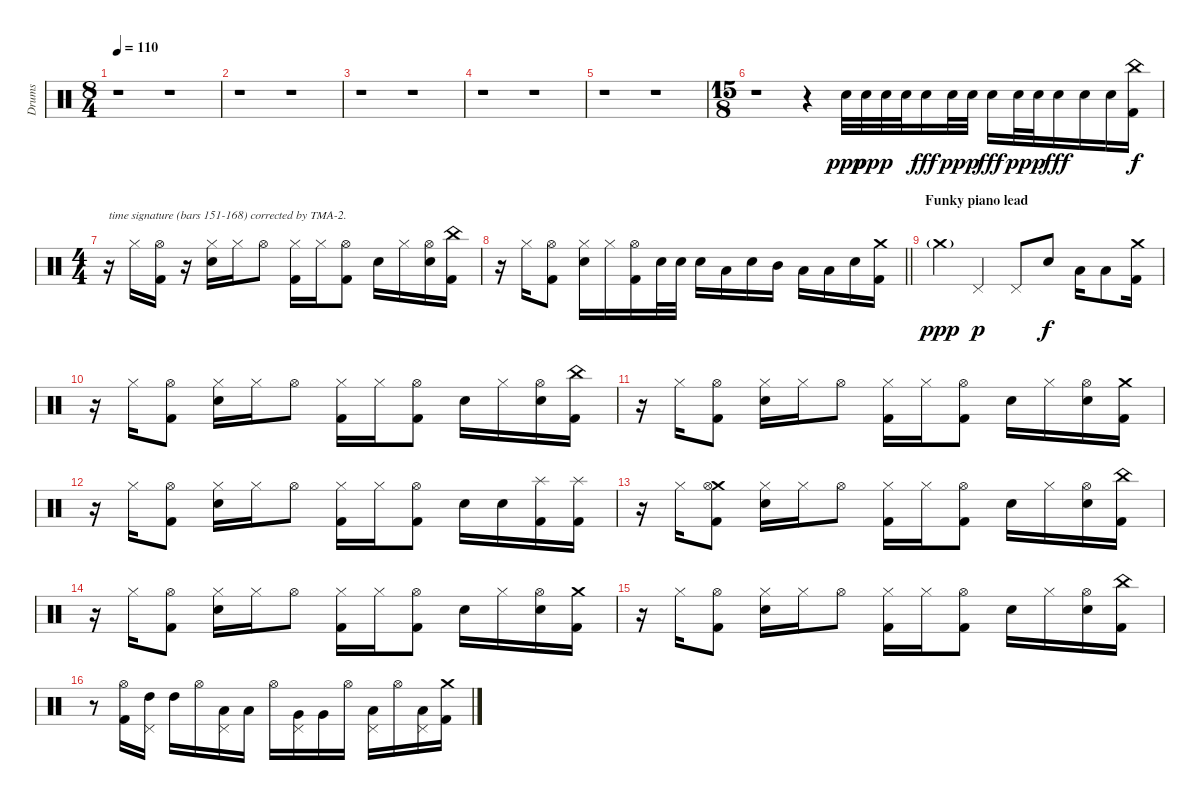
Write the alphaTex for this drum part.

\track ("Drums" "Drums") {instrument percussion}
\staff {score}
\articulation defaults
\ts (8 4)
\tempo 110
\clef neutral
\ks c
r.1{dy f} r.1 |
r.1 r.1 |
r.1 r.1 |
r.1 r.1 |
r.1 r.1 |
\ts (15 8)
r.1 r.4 "Electric Snare (hit)".32{dy ppp} "Electric Snare (hit)".32{dy pp} "Electric Snare (hit)".32{dy p} "Electric Snare (hit)".32 "Electric Snare (hit)".16{dy fff} "Electric Snare (hit)".32{dy pp} "Electric Snare (hit)".32{dy p} "Electric Snare (hit)".16{dy fff} "Electric Snare (hit)".32{dy pp} "Electric Snare (hit)".32{dy p} "Electric Snare (hit)".16{dy fff} "Electric Snare (hit)".16 "Electric Snare (hit)".16 ("China (hit)" "Kick (hit) 2").16{dy f} |
\ts (4 4)
r.16{txt "time signature (bars 151-168) corrected by TMA-2. "} "Hi-Hat (closed)".16 ("Hi-Hat (open)" "Kick (hit) 2").16 r.16 ("Hi-Hat (closed)" "Electric Snare (hit)").16 "Hi-Hat (closed)".16 "Hi-Hat (open)".8 ("Hi-Hat (closed)" "Kick (hit) 2").16 "Hi-Hat (closed)".16 ("Hi-Hat (open)" "Kick (hit) 2").8 "Electric Snare (hit)".16 "Hi-Hat (closed)".16 ("Hi-Hat (open)" "Electric Snare (hit)").16 ("China (hit)" "Kick (hit) 2").16 |
\barLineRight lightlight
r.16 "Hi-Hat (closed)".16 ("Hi-Hat (open)" "Kick (hit) 2").8 ("Hi-Hat (closed)" "Electric Snare (hit)").16 "Hi-Hat (closed)".16 ("Hi-Hat (open)" "Kick (hit) 2").16 "Electric Snare (hit)".32 "Electric Snare (hit)".32 "Electric Snare (hit)".16 "Low Tom (hit)".16 "Electric Snare (hit)".16 "Mid Tom (hit)".16 "Low Tom (hit)".16 "Low Tom (hit)".16 "Electric Snare (hit)".16 ("Crash medium (hit)" "Kick (hit) 2").16 |
\section ("" "Funky piano lead")
"Crash medium (hit)"{g}.4{dy ppp} "Pedal Hi-Hat (hit)".4{dy p} "Pedal Hi-Hat (hit)".8 "Electric Snare (hit)".8{dy f} "Low Tom (hit)".16 "Low Tom (hit)".8 ("Crash medium (hit)" "Kick (hit) 2").16 |
r.16 "Hi-Hat (closed)".16 ("Hi-Hat (open)" "Kick (hit) 2").8 ("Hi-Hat (closed)" "Electric Snare (hit)").16 "Hi-Hat (closed)".16 "Hi-Hat (open)".8 ("Hi-Hat (closed)" "Kick (hit) 2").16 "Hi-Hat (closed)".16 ("Hi-Hat (open)" "Kick (hit) 2").8 "Electric Snare (hit)".16 "Hi-Hat (closed)".16 ("Hi-Hat (open)" "Electric Snare (hit)").16 ("China (hit)" "Kick (hit) 2").16 |
r.16 "Hi-Hat (closed)".16 ("Hi-Hat (open)" "Kick (hit) 2").8 ("Hi-Hat (closed)" "Electric Snare (hit)").16 "Hi-Hat (closed)".16 "Hi-Hat (open)".8 ("Hi-Hat (closed)" "Kick (hit) 2").16 "Hi-Hat (closed)".16 ("Hi-Hat (open)" "Kick (hit) 2").8 "Electric Snare (hit)".16 "Hi-Hat (closed)".16 ("Hi-Hat (open)" "Electric Snare (hit)").16 ("Crash medium (hit)" "Kick (hit) 2").16 |
r.16 "Hi-Hat (closed)".16 ("Hi-Hat (open)" "Kick (hit) 2").8 ("Hi-Hat (closed)" "Electric Snare (hit)").16 "Hi-Hat (closed)".16 "Hi-Hat (open)".8 ("Hi-Hat (closed)" "Kick (hit) 2").16 "Hi-Hat (closed)".16 ("Hi-Hat (open)" "Kick (hit) 2").8 "Electric Snare (hit)".16 "Electric Snare (hit)".16 ("Splash (hit)" "Kick (hit) 2").16 ("Splash (hit)" "Kick (hit) 2").16 |
r.16 "Hi-Hat (closed)".16 ("Crash medium (hit)" "Hi-Hat (open)" "Kick (hit) 2").8 ("Hi-Hat (closed)" "Electric Snare (hit)").16 "Hi-Hat (closed)".16 "Hi-Hat (open)".8 ("Hi-Hat (closed)" "Kick (hit) 2").16 "Hi-Hat (closed)".16 ("Hi-Hat (open)" "Kick (hit) 2").8 "Electric Snare (hit)".16 "Hi-Hat (closed)".16 ("Hi-Hat (open)" "Electric Snare (hit)").16 ("China (hit)" "Kick (hit) 2").16 |
r.16 "Hi-Hat (closed)".16 ("Hi-Hat (open)" "Kick (hit) 2").8 ("Hi-Hat (closed)" "Electric Snare (hit)").16 "Hi-Hat (closed)".16 "Hi-Hat (open)".8 ("Hi-Hat (closed)" "Kick (hit) 2").16 "Hi-Hat (closed)".16 ("Hi-Hat (open)" "Kick (hit) 2").8 "Electric Snare (hit)".16 "Hi-Hat (closed)".16 ("Hi-Hat (open)" "Electric Snare (hit)").16 ("Crash medium (hit)" "Kick (hit) 2").16 |
r.16 "Hi-Hat (closed)".16 ("Hi-Hat (open)" "Kick (hit) 2").8 ("Hi-Hat (closed)" "Electric Snare (hit)").16 "Hi-Hat (closed)".16 "Hi-Hat (open)".8 ("Hi-Hat (closed)" "Kick (hit) 2").16 "Hi-Hat (closed)".16 ("Hi-Hat (open)" "Kick (hit) 2").8 "Electric Snare (hit)".16 "Hi-Hat (closed)".16 ("Hi-Hat (open)" "Electric Snare (hit)").16 ("China (hit)" "Kick (hit) 2").16 |
r.8 ("Hi-Hat (open)" "Kick (hit) 2").16 ("Pedal Hi-Hat (hit)" "High Tom (hit)").16 "High Tom (hit)".16 "Hi-Hat (open)".16 ("Pedal Hi-Hat (hit)" "Low Tom (hit)").16 "Low Tom (hit)".16 "Hi-Hat (open)".16 ("Pedal Hi-Hat (hit)" "Very Low Tom (hit)").16 "Very Low Tom (hit)".16 "Hi-Hat (open)".16 ("Pedal Hi-Hat (hit)" "Low Floor Tom (hit)").16 "Hi-Hat (open)".16 ("Pedal Hi-Hat (hit)" "Low Floor Tom (hit)").16 ("Crash medium (hit)" "Kick (hit) 2").16
